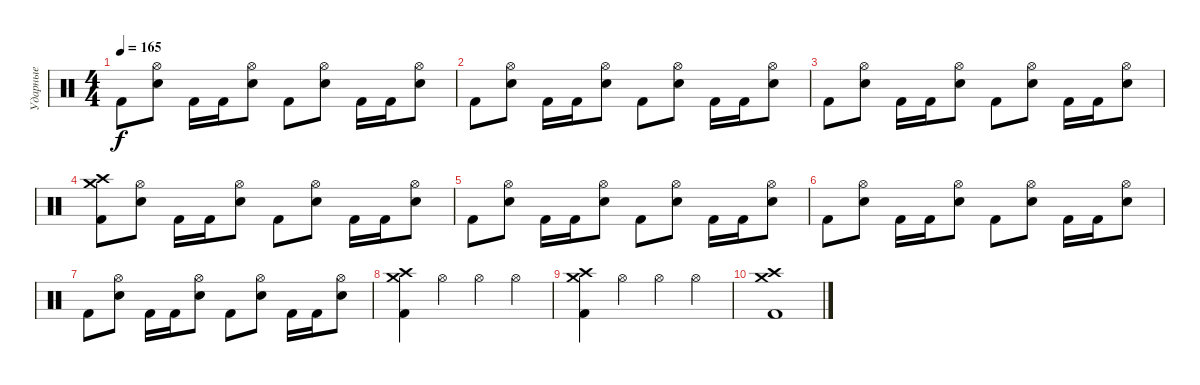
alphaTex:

\track ("Ударные" "Ударные") {instrument percussion}
\staff {score}
\articulation defaults
\ts (4 4)
\tempo 165
\clef neutral
\ks c "Kick (hit) 2".8{dy f}
("Hi-Hat (open)" "Electric Snare (hit)").8 "Kick (hit) 2".16 "Kick (hit) 2".16 ("Hi-Hat (open)" "Electric Snare (hit)").8 "Kick (hit) 2".8 ("Hi-Hat (open)" "Electric Snare (hit)").8 "Kick (hit) 2".16 "Kick (hit) 2".16 ("Hi-Hat (open)" "Electric Snare (hit)").8 |
"Kick (hit) 2".8 ("Hi-Hat (open)" "Electric Snare (hit)").8 "Kick (hit) 2".16 "Kick (hit) 2".16 ("Hi-Hat (open)" "Electric Snare (hit)").8 "Kick (hit) 2".8 ("Hi-Hat (open)" "Electric Snare (hit)").8 "Kick (hit) 2".16 "Kick (hit) 2".16 ("Hi-Hat (open)" "Electric Snare (hit)").8 |
"Kick (hit) 2".8 ("Hi-Hat (open)" "Electric Snare (hit)").8 "Kick (hit) 2".16 "Kick (hit) 2".16 ("Hi-Hat (open)" "Electric Snare (hit)").8 "Kick (hit) 2".8 ("Hi-Hat (open)" "Electric Snare (hit)").8 "Kick (hit) 2".16 "Kick (hit) 2".16 ("Hi-Hat (open)" "Electric Snare (hit)").8 |
("Crash high (hit)" "Crash medium (hit)" "Kick (hit) 2").8 ("Hi-Hat (open)" "Electric Snare (hit)").8 "Kick (hit) 2".16 "Kick (hit) 2".16 ("Hi-Hat (open)" "Electric Snare (hit)").8 "Kick (hit) 2".8 ("Hi-Hat (open)" "Electric Snare (hit)").8 "Kick (hit) 2".16 "Kick (hit) 2".16 ("Hi-Hat (open)" "Electric Snare (hit)").8 |
"Kick (hit) 2".8 ("Hi-Hat (open)" "Electric Snare (hit)").8 "Kick (hit) 2".16 "Kick (hit) 2".16 ("Hi-Hat (open)" "Electric Snare (hit)").8 "Kick (hit) 2".8 ("Hi-Hat (open)" "Electric Snare (hit)").8 "Kick (hit) 2".16 "Kick (hit) 2".16 ("Hi-Hat (open)" "Electric Snare (hit)").8 |
"Kick (hit) 2".8 ("Hi-Hat (open)" "Electric Snare (hit)").8 "Kick (hit) 2".16 "Kick (hit) 2".16 ("Hi-Hat (open)" "Electric Snare (hit)").8 "Kick (hit) 2".8 ("Hi-Hat (open)" "Electric Snare (hit)").8 "Kick (hit) 2".16 "Kick (hit) 2".16 ("Hi-Hat (open)" "Electric Snare (hit)").8 |
"Kick (hit) 2".8 ("Hi-Hat (open)" "Electric Snare (hit)").8 "Kick (hit) 2".16 "Kick (hit) 2".16 ("Hi-Hat (open)" "Electric Snare (hit)").8 "Kick (hit) 2".8 ("Hi-Hat (open)" "Electric Snare (hit)").8 "Kick (hit) 2".16 "Kick (hit) 2".16 ("Hi-Hat (open)" "Electric Snare (hit)").8 |
("Crash medium (hit)" "Crash high (hit)" "Kick (hit) 2").4 "Hi-Hat (open)".4 "Hi-Hat (open)".4 "Hi-Hat (open)".4 |
("Crash medium (hit)" "Crash high (hit)" "Kick (hit) 2").4 "Hi-Hat (open)".4 "Hi-Hat (open)".4 "Hi-Hat (open)".4 |
("Crash medium (hit)" "Crash high (hit)" "Kick (hit) 2").1
